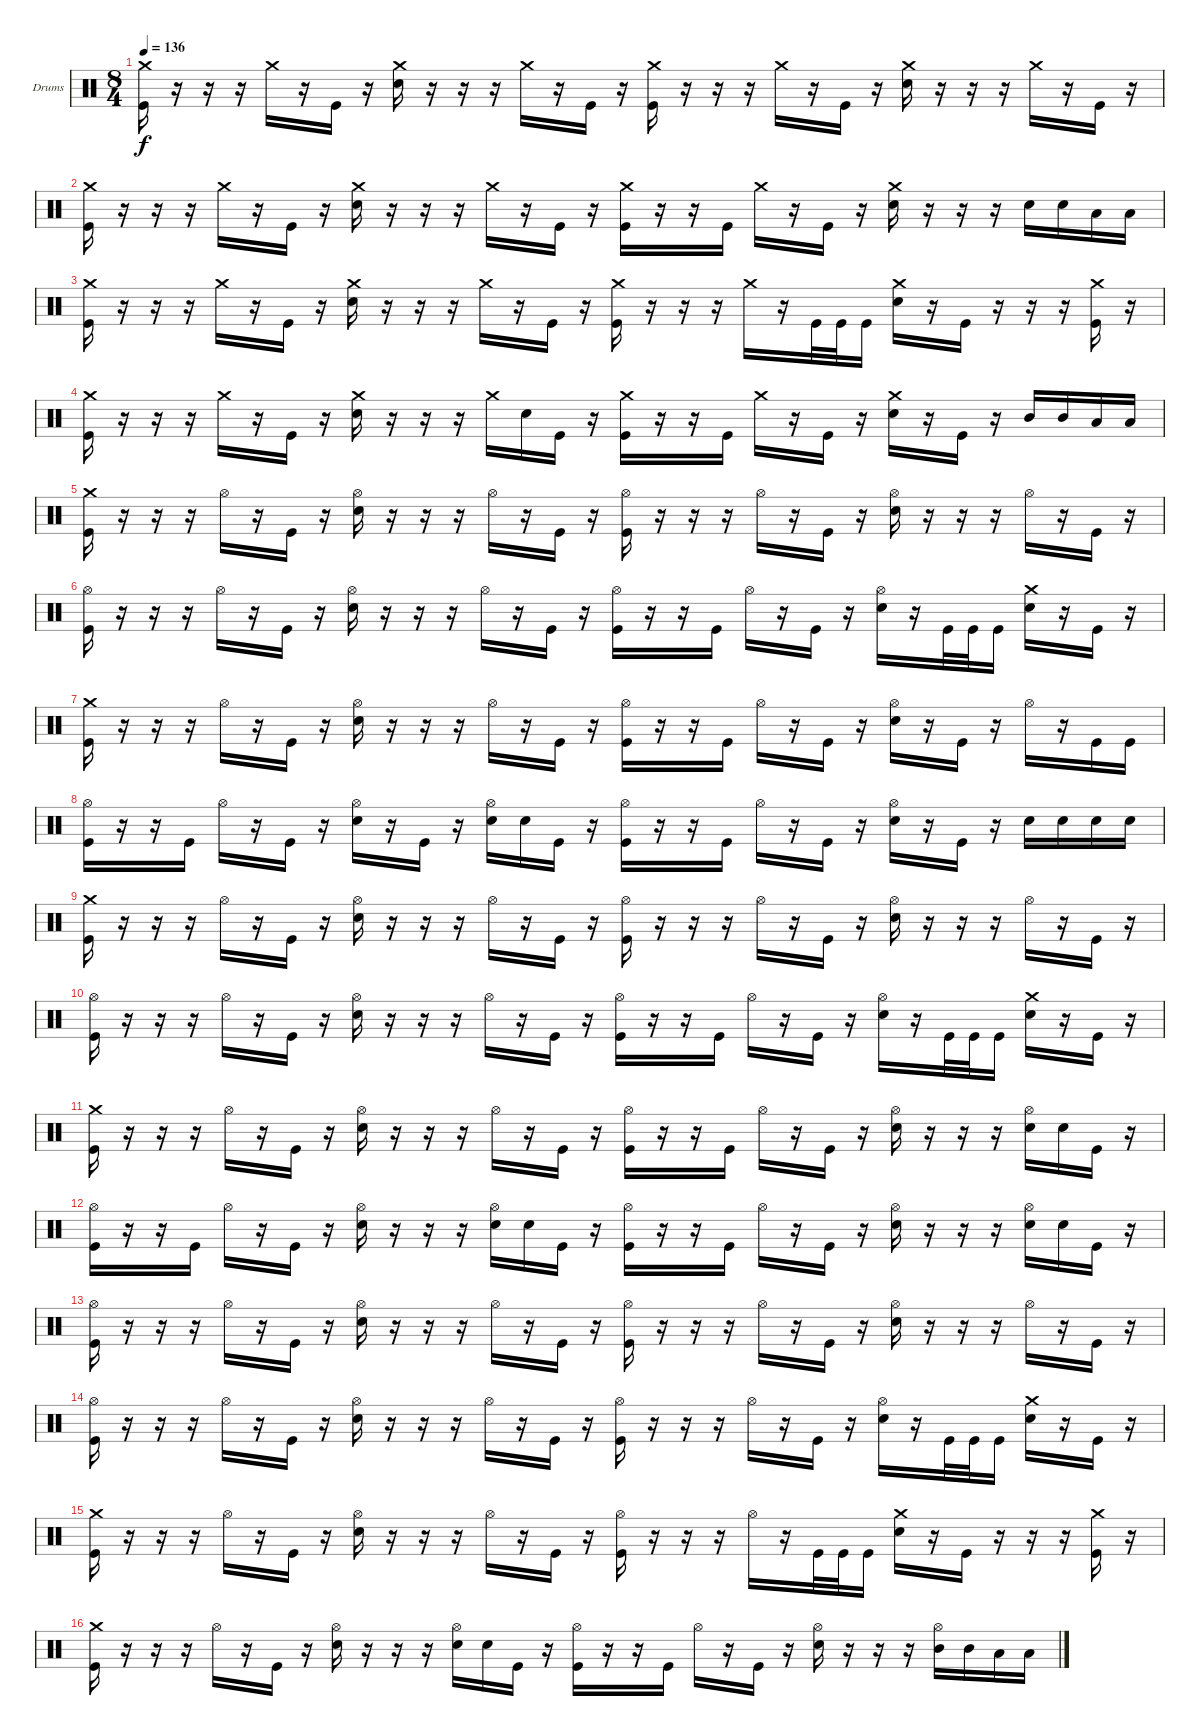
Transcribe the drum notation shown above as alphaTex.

\defaultSystemsLayout 4
\bracketExtendMode groupsimilarinstruments
\firstSystemTrackNameOrientation horizontal
\otherSystemsTrackNameOrientation horizontal
\track ("Drumkit" "Drums") {instrument percussion}
\staff {score}
\articulation defaults
\ts (8 4)
\tempo 136
\clef neutral
\ks c
("Kick (hit)" "Crash medium (hit)").16{dy f} r.16 r.16 r.16 "Crash medium (hit)".16 r.16 "Kick (hit)".16 r.16 ("Snare (hit) 2" "Crash medium (hit)").16 r.16 r.16 r.16 "Crash medium (hit)".16 r.16 "Kick (hit)".16 r.16 ("Kick (hit)" "Crash medium (hit)").16 r.16 r.16 r.16 "Crash medium (hit)".16 r.16 "Kick (hit)".16 r.16 ("Snare (hit) 2" "Crash medium (hit)").16 r.16 r.16 r.16 "Crash medium (hit)".16 r.16 "Kick (hit)".16 r.16 |
("Kick (hit)" "Crash medium (hit)").16 r.16 r.16 r.16 "Crash medium (hit)".16 r.16 "Kick (hit)".16 r.16 ("Snare (hit) 2" "Crash medium (hit)").16 r.16 r.16 r.16 "Crash medium (hit)".16 r.16 "Kick (hit)".16 r.16 ("Kick (hit)" "Crash medium (hit)").16 r.16 r.16 "Kick (hit)".16 "Crash medium (hit)".16 r.16 "Kick (hit)".16 r.16 ("Crash medium (hit)" "Snare (hit) 2").16 r.16 r.16 r.16 "Snare (hit) 2".16 "Snare (hit) 2".16 "Low Tom (hit)".16 "Low Tom (hit)".16 |
("Kick (hit)" "Crash medium (hit)").16 r.16 r.16 r.16 "Crash medium (hit)".16 r.16 "Kick (hit)".16 r.16 ("Snare (hit) 2" "Crash medium (hit)").16 r.16 r.16 r.16 "Crash medium (hit)".16 r.16 "Kick (hit)".16 r.16 ("Kick (hit)" "Crash medium (hit)").16 r.16 r.16 r.16 "Crash medium (hit)".16 r.16 "Kick (hit)".32 "Kick (hit)".32 "Kick (hit)".16 ("Snare (hit) 2" "Crash medium (hit)").16 r.16 "Kick (hit)".16 r.16 r.16 r.16 ("Kick (hit)" "Crash medium (hit)").16 r.16 |
("Kick (hit)" "Crash medium (hit)").16 r.16 r.16 r.16 "Crash medium (hit)".16 r.16 "Kick (hit)".16 r.16 ("Snare (hit) 2" "Crash medium (hit)").16 r.16 r.16 r.16 "Crash medium (hit)".16 "Snare (hit) 2".16 "Kick (hit)".16 r.16 ("Kick (hit)" "Crash medium (hit)").16 r.16 r.16 "Kick (hit)".16 "Crash medium (hit)".16 r.16 "Kick (hit)".16 r.16 ("Snare (hit) 2" "Crash medium (hit)").16 r.16 "Kick (hit)".16 r.16 "Mid Tom (hit)".16 "Mid Tom (hit)".16 "Low Tom (hit)".16 "Low Tom (hit)".16 |
("Kick (hit)" "Crash medium (hit)").16 r.16 r.16 r.16 "Hi-Hat (open)".16 r.16 "Kick (hit)".16 r.16 ("Snare (hit) 2" "Hi-Hat (open)").16 r.16 r.16 r.16 "Hi-Hat (open)".16 r.16 "Kick (hit)".16 r.16 ("Kick (hit)" "Hi-Hat (open)").16 r.16 r.16 r.16 "Hi-Hat (open)".16 r.16 "Kick (hit)".16 r.16 ("Snare (hit) 2" "Hi-Hat (open)").16 r.16 r.16 r.16 "Hi-Hat (open)".16 r.16 "Kick (hit)".16 r.16 |
("Kick (hit)" "Hi-Hat (open)").16 r.16 r.16 r.16 "Hi-Hat (open)".16 r.16 "Kick (hit)".16 r.16 ("Snare (hit) 2" "Hi-Hat (open)").16 r.16 r.16 r.16 "Hi-Hat (open)".16 r.16 "Kick (hit)".16 r.16 ("Kick (hit)" "Hi-Hat (open)").16 r.16 r.16 "Kick (hit)".16 "Hi-Hat (open)".16 r.16 "Kick (hit)".16 r.16 ("Snare (hit) 2" "Hi-Hat (open)").16 r.16 "Kick (hit)".32 "Kick (hit)".32 "Kick (hit)".16 ("Snare (hit) 2" "Crash medium (hit)").16 r.16 "Kick (hit)".16 r.16 |
("Kick (hit)" "Crash medium (hit)").16 r.16 r.16 r.16 "Hi-Hat (open)".16 r.16 "Kick (hit)".16 r.16 ("Snare (hit) 2" "Hi-Hat (open)").16 r.16 r.16 r.16 "Hi-Hat (open)".16 r.16 "Kick (hit)".16 r.16 ("Kick (hit)" "Hi-Hat (open)").16 r.16 r.16 "Kick (hit)".16 "Hi-Hat (open)".16 r.16 "Kick (hit)".16 r.16 ("Snare (hit) 2" "Hi-Hat (open)").16 r.16 "Kick (hit)".16 r.16 "Hi-Hat (open)".16 r.16 "Kick (hit)".16 "Kick (hit)".16 |
("Kick (hit)" "Hi-Hat (open)").16 r.16 r.16 "Kick (hit)".16 "Hi-Hat (open)".16 r.16 "Kick (hit)".16 r.16 ("Snare (hit) 2" "Hi-Hat (open)").16 r.16 "Kick (hit)".16 r.16 ("Hi-Hat (open)" "Snare (hit) 2").16 "Snare (hit) 2".16 "Kick (hit)".16 r.16 ("Kick (hit)" "Hi-Hat (open)").16 r.16 r.16 "Kick (hit)".16 "Hi-Hat (open)".16 r.16 "Kick (hit)".16 r.16 ("Snare (hit) 2" "Hi-Hat (open)").16 r.16 "Kick (hit)".16 r.16 "Snare (hit) 2".16 "Snare (hit) 2".16 "Snare (hit) 2".16 "Snare (hit) 2".16 |
("Kick (hit)" "Crash medium (hit)").16 r.16 r.16 r.16 "Hi-Hat (open)".16 r.16 "Kick (hit)".16 r.16 ("Snare (hit) 2" "Hi-Hat (open)").16 r.16 r.16 r.16 "Hi-Hat (open)".16 r.16 "Kick (hit)".16 r.16 ("Kick (hit)" "Hi-Hat (open)").16 r.16 r.16 r.16 "Hi-Hat (open)".16 r.16 "Kick (hit)".16 r.16 ("Snare (hit) 2" "Hi-Hat (open)").16 r.16 r.16 r.16 "Hi-Hat (open)".16 r.16 "Kick (hit)".16 r.16 |
("Kick (hit)" "Hi-Hat (open)").16 r.16 r.16 r.16 "Hi-Hat (open)".16 r.16 "Kick (hit)".16 r.16 ("Snare (hit) 2" "Hi-Hat (open)").16 r.16 r.16 r.16 "Hi-Hat (open)".16 r.16 "Kick (hit)".16 r.16 ("Kick (hit)" "Hi-Hat (open)").16 r.16 r.16 "Kick (hit)".16 "Hi-Hat (open)".16 r.16 "Kick (hit)".16 r.16 ("Snare (hit) 2" "Hi-Hat (open)").16 r.16 "Kick (hit)".32 "Kick (hit)".32 "Kick (hit)".16 ("Snare (hit) 2" "Crash medium (hit)").16 r.16 "Kick (hit)".16 r.16 |
("Kick (hit)" "Crash medium (hit)").16 r.16 r.16 r.16 "Hi-Hat (open)".16 r.16 "Kick (hit)".16 r.16 ("Snare (hit) 2" "Hi-Hat (open)").16 r.16 r.16 r.16 "Hi-Hat (open)".16 r.16 "Kick (hit)".16 r.16 ("Kick (hit)" "Hi-Hat (open)").16 r.16 r.16 "Kick (hit)".16 "Hi-Hat (open)".16 r.16 "Kick (hit)".16 r.16 ("Snare (hit) 2" "Hi-Hat (open)").16 r.16 r.16 r.16 ("Hi-Hat (open)" "Snare (hit) 2").16 "Snare (hit) 2".16 "Kick (hit)".16 r.16 |
("Kick (hit)" "Hi-Hat (open)").16 r.16 r.16 "Kick (hit)".16 "Hi-Hat (open)".16 r.16 "Kick (hit)".16 r.16 ("Snare (hit) 2" "Hi-Hat (open)").16 r.16 r.16 r.16 ("Hi-Hat (open)" "Snare (hit) 2").16 "Snare (hit) 2".16 "Kick (hit)".16 r.16 ("Kick (hit)" "Hi-Hat (open)").16 r.16 r.16 "Kick (hit)".16 "Hi-Hat (open)".16 r.16 "Kick (hit)".16 r.16 ("Snare (hit) 2" "Hi-Hat (open)").16 r.16 r.16 r.16 ("Hi-Hat (open)" "Snare (hit) 2").16 "Snare (hit) 2".16 "Kick (hit)".16 r.16 |
("Kick (hit)" "Hi-Hat (open)").16 r.16 r.16 r.16 "Hi-Hat (open)".16 r.16 "Kick (hit)".16 r.16 ("Snare (hit) 2" "Hi-Hat (open)").16 r.16 r.16 r.16 "Hi-Hat (open)".16 r.16 "Kick (hit)".16 r.16 ("Kick (hit)" "Hi-Hat (open)").16 r.16 r.16 r.16 "Hi-Hat (open)".16 r.16 "Kick (hit)".16 r.16 ("Snare (hit) 2" "Hi-Hat (open)").16 r.16 r.16 r.16 "Hi-Hat (open)".16 r.16 "Kick (hit)".16 r.16 |
("Kick (hit)" "Hi-Hat (open)").16 r.16 r.16 r.16 "Hi-Hat (open)".16 r.16 "Kick (hit)".16 r.16 ("Snare (hit) 2" "Hi-Hat (open)").16 r.16 r.16 r.16 "Hi-Hat (open)".16 r.16 "Kick (hit)".16 r.16 ("Kick (hit)" "Hi-Hat (open)").16 r.16 r.16 r.16 "Hi-Hat (open)".16 r.16 "Kick (hit)".16 r.16 ("Snare (hit) 2" "Hi-Hat (open)").16 r.16 "Kick (hit)".32 "Kick (hit)".32 "Kick (hit)".16 ("Snare (hit) 2" "Crash medium (hit)").16 r.16 "Kick (hit)".16 r.16 |
("Kick (hit)" "Crash medium (hit)").16 r.16 r.16 r.16 "Hi-Hat (open)".16 r.16 "Kick (hit)".16 r.16 ("Snare (hit) 2" "Hi-Hat (open)").16 r.16 r.16 r.16 "Hi-Hat (open)".16 r.16 "Kick (hit)".16 r.16 ("Kick (hit)" "Hi-Hat (open)").16 r.16 r.16 r.16 "Hi-Hat (open)".16 r.16 "Kick (hit)".32 "Kick (hit)".32 "Kick (hit)".16 ("Snare (hit) 2" "Crash medium (hit)").16 r.16 "Kick (hit)".16 r.16 r.16 r.16 ("Kick (hit)" "Crash medium (hit)").16 r.16 |
("Kick (hit)" "Crash medium (hit)").16 r.16 r.16 r.16 "Hi-Hat (open)".16 r.16 "Kick (hit)".16 r.16 ("Snare (hit) 2" "Hi-Hat (open)").16 r.16 r.16 r.16 ("Hi-Hat (open)" "Snare (hit) 2").16 "Snare (hit) 2".16 "Kick (hit)".16 r.16 ("Kick (hit)" "Hi-Hat (open)").16 r.16 r.16 "Kick (hit)".16 "Hi-Hat (open)".16 r.16 "Kick (hit)".16 r.16 ("Snare (hit) 2" "Hi-Hat (open)").16 r.16 r.16 r.16 ("Hi-Hat (open)" "Mid Tom (hit)").16 "Mid Tom (hit)".16 "Low Tom (hit)".16 "Low Tom (hit)".16
